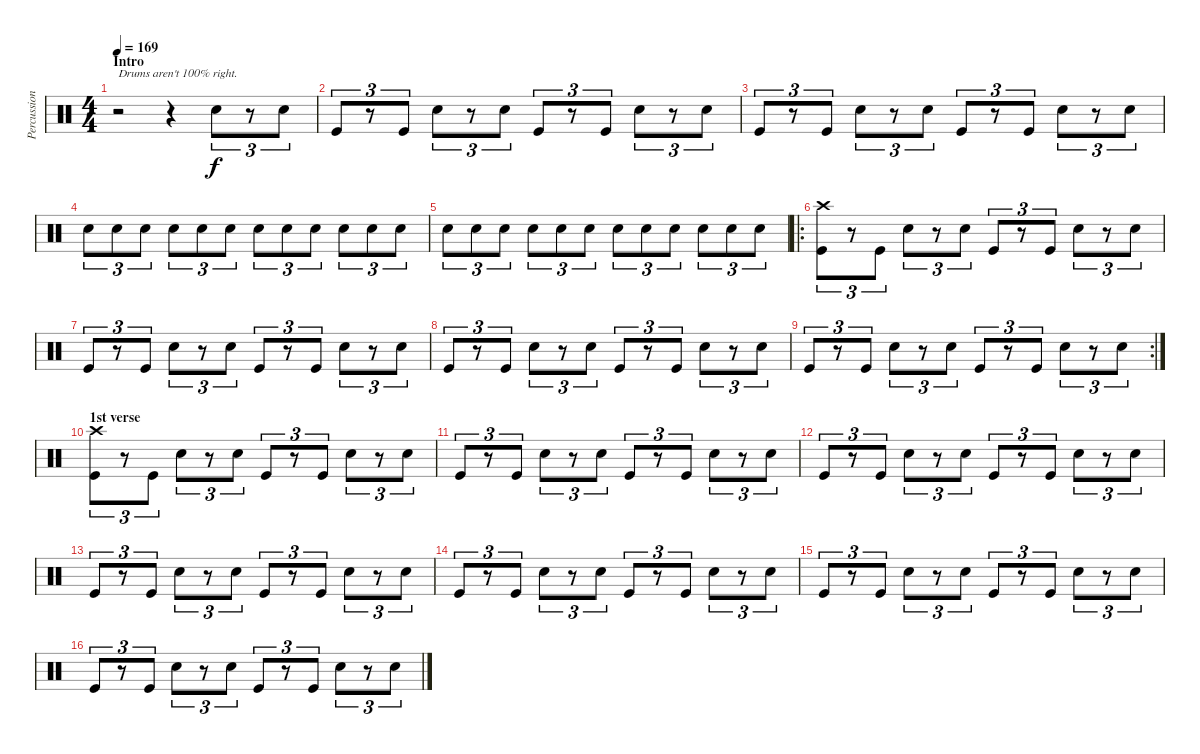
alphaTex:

\track ("Percussion" "Percussion") {instrument percussion}
\staff {score}
\articulation defaults
\ts (4 4)
\section ("" "Intro")
\tempo 169
\clef neutral
\ks c
r.2{txt "Drums aren't 100% right." dy f} r.4 "Snare (hit) 2".8{tu (3 2)} r.8{tu (3 2)} "Snare (hit) 2".8{tu (3 2)} |
"Kick (hit)".8{tu (3 2)} r.8{tu (3 2)} "Kick (hit)".8{tu (3 2)} "Snare (hit) 2".8{tu (3 2)} r.8{tu (3 2)} "Snare (hit) 2".8{tu (3 2)} "Kick (hit)".8{tu (3 2)} r.8{tu (3 2)} "Kick (hit)".8{tu (3 2)} "Snare (hit) 2".8{tu (3 2)} r.8{tu (3 2)} "Snare (hit) 2".8{tu (3 2)} |
"Kick (hit)".8{tu (3 2)} r.8{tu (3 2)} "Kick (hit)".8{tu (3 2)} "Snare (hit) 2".8{tu (3 2)} r.8{tu (3 2)} "Snare (hit) 2".8{tu (3 2)} "Kick (hit)".8{tu (3 2)} r.8{tu (3 2)} "Kick (hit)".8{tu (3 2)} "Snare (hit) 2".8{tu (3 2)} r.8{tu (3 2)} "Snare (hit) 2".8{tu (3 2)} |
"Snare (hit) 2".8{tu (3 2)} "Snare (hit) 2".8{tu (3 2)} "Snare (hit) 2".8{tu (3 2)} "Snare (hit) 2".8{tu (3 2)} "Snare (hit) 2".8{tu (3 2)} "Snare (hit) 2".8{tu (3 2)} "Snare (hit) 2".8{tu (3 2)} "Snare (hit) 2".8{tu (3 2)} "Snare (hit) 2".8{tu (3 2)} "Snare (hit) 2".8{tu (3 2)} "Snare (hit) 2".8{tu (3 2)} "Snare (hit) 2".8{tu (3 2)} |
"Snare (hit) 2".8{tu (3 2)} "Snare (hit) 2".8{tu (3 2)} "Snare (hit) 2".8{tu (3 2)} "Snare (hit) 2".8{tu (3 2)} "Snare (hit) 2".8{tu (3 2)} "Snare (hit) 2".8{tu (3 2)} "Snare (hit) 2".8{tu (3 2)} "Snare (hit) 2".8{tu (3 2)} "Snare (hit) 2".8{tu (3 2)} "Snare (hit) 2".8{tu (3 2)} "Snare (hit) 2".8{tu (3 2)} "Snare (hit) 2".8{tu (3 2)} |
\ro
("Crash high (hit)" "Kick (hit)").8{tu (3 2)} r.8{tu (3 2)} "Kick (hit)".8{tu (3 2)} "Snare (hit) 2".8{tu (3 2)} r.8{tu (3 2)} "Snare (hit) 2".8{tu (3 2)} "Kick (hit)".8{tu (3 2)} r.8{tu (3 2)} "Kick (hit)".8{tu (3 2)} "Snare (hit) 2".8{tu (3 2)} r.8{tu (3 2)} "Snare (hit) 2".8{tu (3 2)} |
"Kick (hit)".8{tu (3 2)} r.8{tu (3 2)} "Kick (hit)".8{tu (3 2)} "Snare (hit) 2".8{tu (3 2)} r.8{tu (3 2)} "Snare (hit) 2".8{tu (3 2)} "Kick (hit)".8{tu (3 2)} r.8{tu (3 2)} "Kick (hit)".8{tu (3 2)} "Snare (hit) 2".8{tu (3 2)} r.8{tu (3 2)} "Snare (hit) 2".8{tu (3 2)} |
"Kick (hit)".8{tu (3 2)} r.8{tu (3 2)} "Kick (hit)".8{tu (3 2)} "Snare (hit) 2".8{tu (3 2)} r.8{tu (3 2)} "Snare (hit) 2".8{tu (3 2)} "Kick (hit)".8{tu (3 2)} r.8{tu (3 2)} "Kick (hit)".8{tu (3 2)} "Snare (hit) 2".8{tu (3 2)} r.8{tu (3 2)} "Snare (hit) 2".8{tu (3 2)} |
\rc 2 "Kick (hit)".8{tu (3 2)}
r.8{tu (3 2)} "Kick (hit)".8{tu (3 2)} "Snare (hit) 2".8{tu (3 2)} r.8{tu (3 2)} "Snare (hit) 2".8{tu (3 2)} "Kick (hit)".8{tu (3 2)} r.8{tu (3 2)} "Kick (hit)".8{tu (3 2)} "Snare (hit) 2".8{tu (3 2)} r.8{tu (3 2)} "Snare (hit) 2".8{tu (3 2)} |
\section ("" "1st verse")
("Crash high (hit)" "Kick (hit)").8{tu (3 2)} r.8{tu (3 2)} "Kick (hit)".8{tu (3 2)} "Snare (hit) 2".8{tu (3 2)} r.8{tu (3 2)} "Snare (hit) 2".8{tu (3 2)} "Kick (hit)".8{tu (3 2)} r.8{tu (3 2)} "Kick (hit)".8{tu (3 2)} "Snare (hit) 2".8{tu (3 2)} r.8{tu (3 2)} "Snare (hit) 2".8{tu (3 2)} |
"Kick (hit)".8{tu (3 2)} r.8{tu (3 2)} "Kick (hit)".8{tu (3 2)} "Snare (hit) 2".8{tu (3 2)} r.8{tu (3 2)} "Snare (hit) 2".8{tu (3 2)} "Kick (hit)".8{tu (3 2)} r.8{tu (3 2)} "Kick (hit)".8{tu (3 2)} "Snare (hit) 2".8{tu (3 2)} r.8{tu (3 2)} "Snare (hit) 2".8{tu (3 2)} |
"Kick (hit)".8{tu (3 2)} r.8{tu (3 2)} "Kick (hit)".8{tu (3 2)} "Snare (hit) 2".8{tu (3 2)} r.8{tu (3 2)} "Snare (hit) 2".8{tu (3 2)} "Kick (hit)".8{tu (3 2)} r.8{tu (3 2)} "Kick (hit)".8{tu (3 2)} "Snare (hit) 2".8{tu (3 2)} r.8{tu (3 2)} "Snare (hit) 2".8{tu (3 2)} |
"Kick (hit)".8{tu (3 2)} r.8{tu (3 2)} "Kick (hit)".8{tu (3 2)} "Snare (hit) 2".8{tu (3 2)} r.8{tu (3 2)} "Snare (hit) 2".8{tu (3 2)} "Kick (hit)".8{tu (3 2)} r.8{tu (3 2)} "Kick (hit)".8{tu (3 2)} "Snare (hit) 2".8{tu (3 2)} r.8{tu (3 2)} "Snare (hit) 2".8{tu (3 2)} |
"Kick (hit)".8{tu (3 2)} r.8{tu (3 2)} "Kick (hit)".8{tu (3 2)} "Snare (hit) 2".8{tu (3 2)} r.8{tu (3 2)} "Snare (hit) 2".8{tu (3 2)} "Kick (hit)".8{tu (3 2)} r.8{tu (3 2)} "Kick (hit)".8{tu (3 2)} "Snare (hit) 2".8{tu (3 2)} r.8{tu (3 2)} "Snare (hit) 2".8{tu (3 2)} |
"Kick (hit)".8{tu (3 2)} r.8{tu (3 2)} "Kick (hit)".8{tu (3 2)} "Snare (hit) 2".8{tu (3 2)} r.8{tu (3 2)} "Snare (hit) 2".8{tu (3 2)} "Kick (hit)".8{tu (3 2)} r.8{tu (3 2)} "Kick (hit)".8{tu (3 2)} "Snare (hit) 2".8{tu (3 2)} r.8{tu (3 2)} "Snare (hit) 2".8{tu (3 2)} |
"Kick (hit)".8{tu (3 2)} r.8{tu (3 2)} "Kick (hit)".8{tu (3 2)} "Snare (hit) 2".8{tu (3 2)} r.8{tu (3 2)} "Snare (hit) 2".8{tu (3 2)} "Kick (hit)".8{tu (3 2)} r.8{tu (3 2)} "Kick (hit)".8{tu (3 2)} "Snare (hit) 2".8{tu (3 2)} r.8{tu (3 2)} "Snare (hit) 2".8{tu (3 2)}
